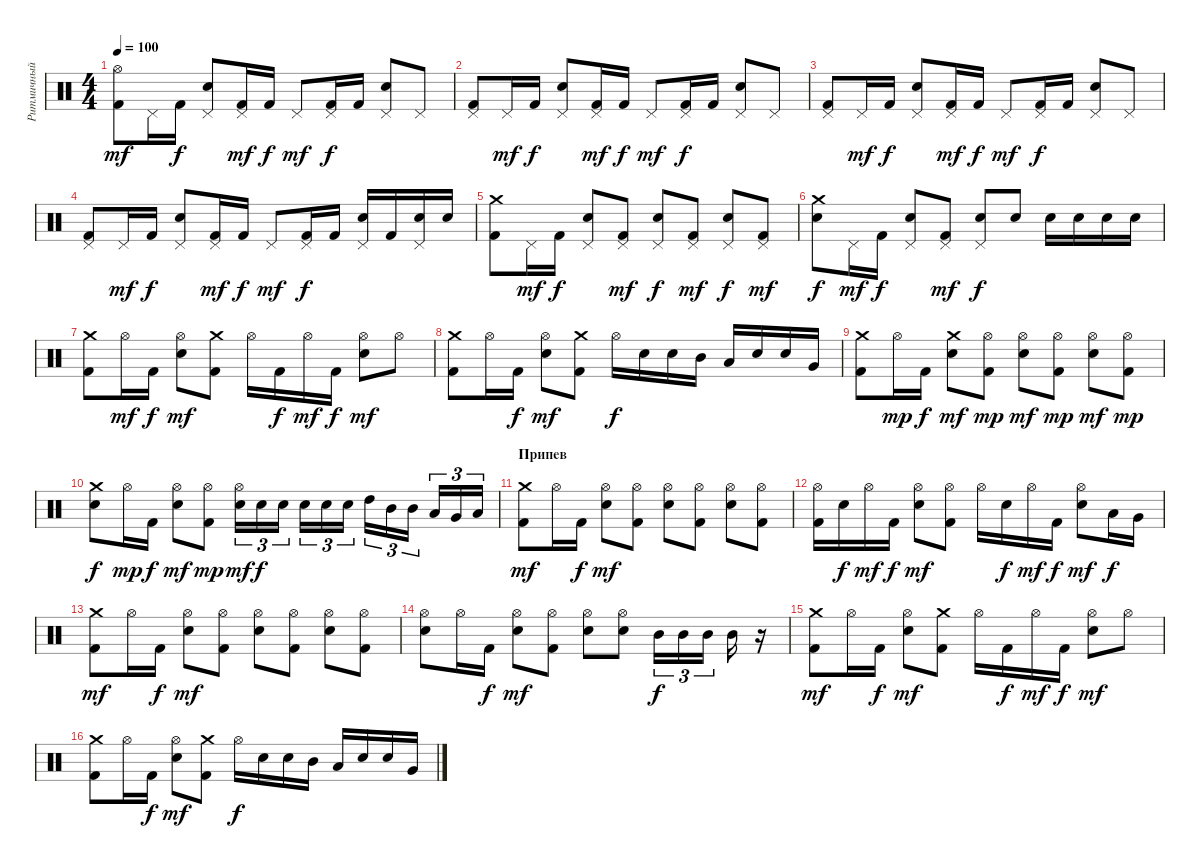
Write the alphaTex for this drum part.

\track ("Ритмичный Вова" "Ритмичный ") {instrument percussion}
\staff {score}
\articulation defaults
\ts (4 4)
\tempo 100
\clef neutral
\ks c
("Hi-Hat (open)" "Kick (hit) 2").8{dy mf} "Pedal Hi-Hat (hit)".16 "Kick (hit) 2".16{dy f} ("Pedal Hi-Hat (hit)" "Electric Snare (hit)").8 ("Pedal Hi-Hat (hit)" "Kick (hit) 2").16{dy mf} "Kick (hit) 2".16{dy f} "Pedal Hi-Hat (hit)".8{dy mf} ("Pedal Hi-Hat (hit)" "Kick (hit) 2").16{dy f} "Kick (hit) 2".16 ("Pedal Hi-Hat (hit)" "Electric Snare (hit)").8 "Pedal Hi-Hat (hit)".8 |
("Pedal Hi-Hat (hit)" "Kick (hit) 2").8 "Pedal Hi-Hat (hit)".16{dy mf} "Kick (hit) 2".16{dy f} ("Pedal Hi-Hat (hit)" "Electric Snare (hit)").8 ("Pedal Hi-Hat (hit)" "Kick (hit) 2").16{dy mf} "Kick (hit) 2".16{dy f} "Pedal Hi-Hat (hit)".8{dy mf} ("Pedal Hi-Hat (hit)" "Kick (hit) 2").16{dy f} "Kick (hit) 2".16 ("Pedal Hi-Hat (hit)" "Electric Snare (hit)").8 "Pedal Hi-Hat (hit)".8 |
("Pedal Hi-Hat (hit)" "Kick (hit) 2").8 "Pedal Hi-Hat (hit)".16{dy mf} "Kick (hit) 2".16{dy f} ("Pedal Hi-Hat (hit)" "Electric Snare (hit)").8 ("Pedal Hi-Hat (hit)" "Kick (hit) 2").16{dy mf} "Kick (hit) 2".16{dy f} "Pedal Hi-Hat (hit)".8{dy mf} ("Pedal Hi-Hat (hit)" "Kick (hit) 2").16{dy f} "Kick (hit) 2".16 ("Pedal Hi-Hat (hit)" "Electric Snare (hit)").8 "Pedal Hi-Hat (hit)".8 |
("Pedal Hi-Hat (hit)" "Kick (hit) 2").8 "Pedal Hi-Hat (hit)".16{dy mf} "Kick (hit) 2".16{dy f} ("Pedal Hi-Hat (hit)" "Electric Snare (hit)").8 ("Pedal Hi-Hat (hit)" "Kick (hit) 2").16{dy mf} "Kick (hit) 2".16{dy f} "Pedal Hi-Hat (hit)".8{dy mf} ("Pedal Hi-Hat (hit)" "Kick (hit) 2").16{dy f} "Kick (hit) 2".16 ("Pedal Hi-Hat (hit)" "Electric Snare (hit)").16 "Kick (hit) 2".16 ("Pedal Hi-Hat (hit)" "Electric Snare (hit)").16 "Electric Snare (hit)".16 |
("Crash medium (hit)" "Kick (hit) 2").8 "Pedal Hi-Hat (hit)".16{dy mf} "Kick (hit) 2".16{dy f} ("Pedal Hi-Hat (hit)" "Electric Snare (hit)").8 ("Pedal Hi-Hat (hit)" "Kick (hit) 2").8{dy mf} ("Pedal Hi-Hat (hit)" "Electric Snare (hit)").8{dy f} ("Pedal Hi-Hat (hit)" "Kick (hit) 2").8{dy mf} ("Pedal Hi-Hat (hit)" "Electric Snare (hit)").8{dy f} ("Pedal Hi-Hat (hit)" "Kick (hit) 2").8{dy mf} |
("Crash medium (hit)" "Electric Snare (hit)").8{dy f} "Pedal Hi-Hat (hit)".16{dy mf} "Kick (hit) 2".16{dy f} ("Pedal Hi-Hat (hit)" "Electric Snare (hit)").8 ("Pedal Hi-Hat (hit)" "Kick (hit) 2").8{dy mf} ("Pedal Hi-Hat (hit)" "Electric Snare (hit)").8{dy f} "Electric Snare (hit)".8 "Electric Snare (hit)".16 "Electric Snare (hit)".16 "Electric Snare (hit)".16 "Electric Snare (hit)".16 |
("Crash medium (hit)" "Kick (hit) 2").8 "Hi-Hat (open)".16{dy mf} "Kick (hit) 2".16{dy f} ("Hi-Hat (open)" "Electric Snare (hit)").8{dy mf} ("Crash medium (hit)" "Kick (hit) 2").8 "Hi-Hat (open)".16 "Kick (hit) 2".16{dy f} "Hi-Hat (open)".16{dy mf} "Kick (hit) 2".16{dy f} ("Hi-Hat (open)" "Electric Snare (hit)").8{dy mf} "Hi-Hat (open)".8 |
("Crash medium (hit)" "Kick (hit) 2").8 "Hi-Hat (open)".16 "Kick (hit) 2".16{dy f} ("Hi-Hat (open)" "Electric Snare (hit)").8{dy mf} ("Crash medium (hit)" "Kick (hit) 2").8 "Hi-Hat (open)".16{dy f} "Electric Snare (hit)".16 "Electric Snare (hit)".16 "Mid Tom (hit)".16 "Low Tom (hit)".16 "Electric Snare (hit)".16 "Electric Snare (hit)".16 "Very Low Tom (hit)".16 |
("Crash medium (hit)" "Kick (hit) 2").8 "Hi-Hat (open)".16{dy mp} "Kick (hit) 2".16{dy f} ("Crash medium (hit)" "Electric Snare (hit)").8{dy mf} ("Hi-Hat (open)" "Kick (hit) 2").8{dy mp} ("Hi-Hat (open)" "Electric Snare (hit)").8{dy mf} ("Hi-Hat (open)" "Kick (hit) 2").8{dy mp} ("Hi-Hat (open)" "Electric Snare (hit)").8{dy mf} ("Hi-Hat (open)" "Kick (hit) 2").8{dy mp} |
("Crash medium (hit)" "Electric Snare (hit)").8{dy f} "Hi-Hat (open)".16{dy mp} "Kick (hit) 2".16{dy f} ("Hi-Hat (open)" "Electric Snare (hit)").8{dy mf} ("Hi-Hat (open)" "Kick (hit) 2").8{dy mp} ("Hi-Hat (open)" "Electric Snare (hit)").16{tu (3 2) dy mf} "Electric Snare (hit)".16{tu (3 2) dy f} "Electric Snare (hit)".16{tu (3 2)} "Electric Snare (hit)".16{tu (3 2)} "Electric Snare (hit)".16{tu (3 2)} "Electric Snare (hit)".16{tu (3 2)} "High Tom (hit)".16{tu (3 2)} "Mid Tom (hit)".16{tu (3 2)} "Mid Tom (hit)".16{tu (3 2)} "Low Tom (hit)".16{tu (3 2)} "Very Low Tom (hit)".16{tu (3 2)} "Low Floor Tom (hit)".16{tu (3 2)} |
\section ("" "Припев")
("Crash medium (hit)" "Kick (hit) 2").8{dy mf} "Hi-Hat (open)".16 "Kick (hit) 2".16{dy f} ("Hi-Hat (open)" "Electric Snare (hit)").8{dy mf} ("Hi-Hat (open)" "Kick (hit) 2").8 ("Hi-Hat (open)" "Electric Snare (hit)").8 ("Hi-Hat (open)" "Kick (hit) 2").8 ("Hi-Hat (open)" "Electric Snare (hit)").8 ("Hi-Hat (open)" "Kick (hit) 2").8 |
("Hi-Hat (open)" "Kick (hit) 2").16 "Electric Snare (hit)".16{dy f} "Hi-Hat (open)".16{dy mf} "Kick (hit) 2".16{dy f} ("Hi-Hat (open)" "Electric Snare (hit)").8{dy mf} ("Hi-Hat (open)" "Kick (hit) 2").8 "Hi-Hat (open)".16 "Electric Snare (hit)".16{dy f} "Hi-Hat (open)".16{dy mf} "Kick (hit) 2".16{dy f} ("Hi-Hat (open)" "Electric Snare (hit)").8{dy mf} "Low Tom (hit)".16{dy f} "Very Low Tom (hit)".16 |
("Crash medium (hit)" "Kick (hit) 2").8{dy mf} "Hi-Hat (open)".16 "Kick (hit) 2".16{dy f} ("Hi-Hat (open)" "Electric Snare (hit)").8{dy mf} ("Hi-Hat (open)" "Kick (hit) 2").8 ("Hi-Hat (open)" "Electric Snare (hit)").8 ("Hi-Hat (open)" "Kick (hit) 2").8 ("Hi-Hat (open)" "Electric Snare (hit)").8 ("Hi-Hat (open)" "Kick (hit) 2").8 |
("Hi-Hat (open)" "Electric Snare (hit)").8 "Hi-Hat (open)".16 "Kick (hit) 2".16{dy f} ("Hi-Hat (open)" "Electric Snare (hit)").8{dy mf} ("Hi-Hat (open)" "Kick (hit) 2").8 ("Hi-Hat (open)" "Electric Snare (hit)").8 ("Hi-Hat (open)" "Electric Snare (hit)").8 "Mid Tom (hit)".16{tu (3 2) dy f} "Mid Tom (hit)".16{tu (3 2)} "Mid Tom (hit)".16{tu (3 2)} "Mid Tom (hit)".16 r.16 |
("Crash medium (hit)" "Kick (hit) 2").8{dy mf} "Hi-Hat (open)".16 "Kick (hit) 2".16{dy f} ("Hi-Hat (open)" "Electric Snare (hit)").8{dy mf} ("Crash medium (hit)" "Kick (hit) 2").8 "Hi-Hat (open)".16 "Kick (hit) 2".16{dy f} "Hi-Hat (open)".16{dy mf} "Kick (hit) 2".16{dy f} ("Hi-Hat (open)" "Electric Snare (hit)").8{dy mf} "Hi-Hat (open)".8 |
("Crash medium (hit)" "Kick (hit) 2").8 "Hi-Hat (open)".16 "Kick (hit) 2".16{dy f} ("Hi-Hat (open)" "Electric Snare (hit)").8{dy mf} ("Crash medium (hit)" "Kick (hit) 2").8 "Hi-Hat (open)".16{dy f} "Electric Snare (hit)".16 "Electric Snare (hit)".16 "Mid Tom (hit)".16 "Low Tom (hit)".16 "Electric Snare (hit)".16 "Electric Snare (hit)".16 "Very Low Tom (hit)".16
